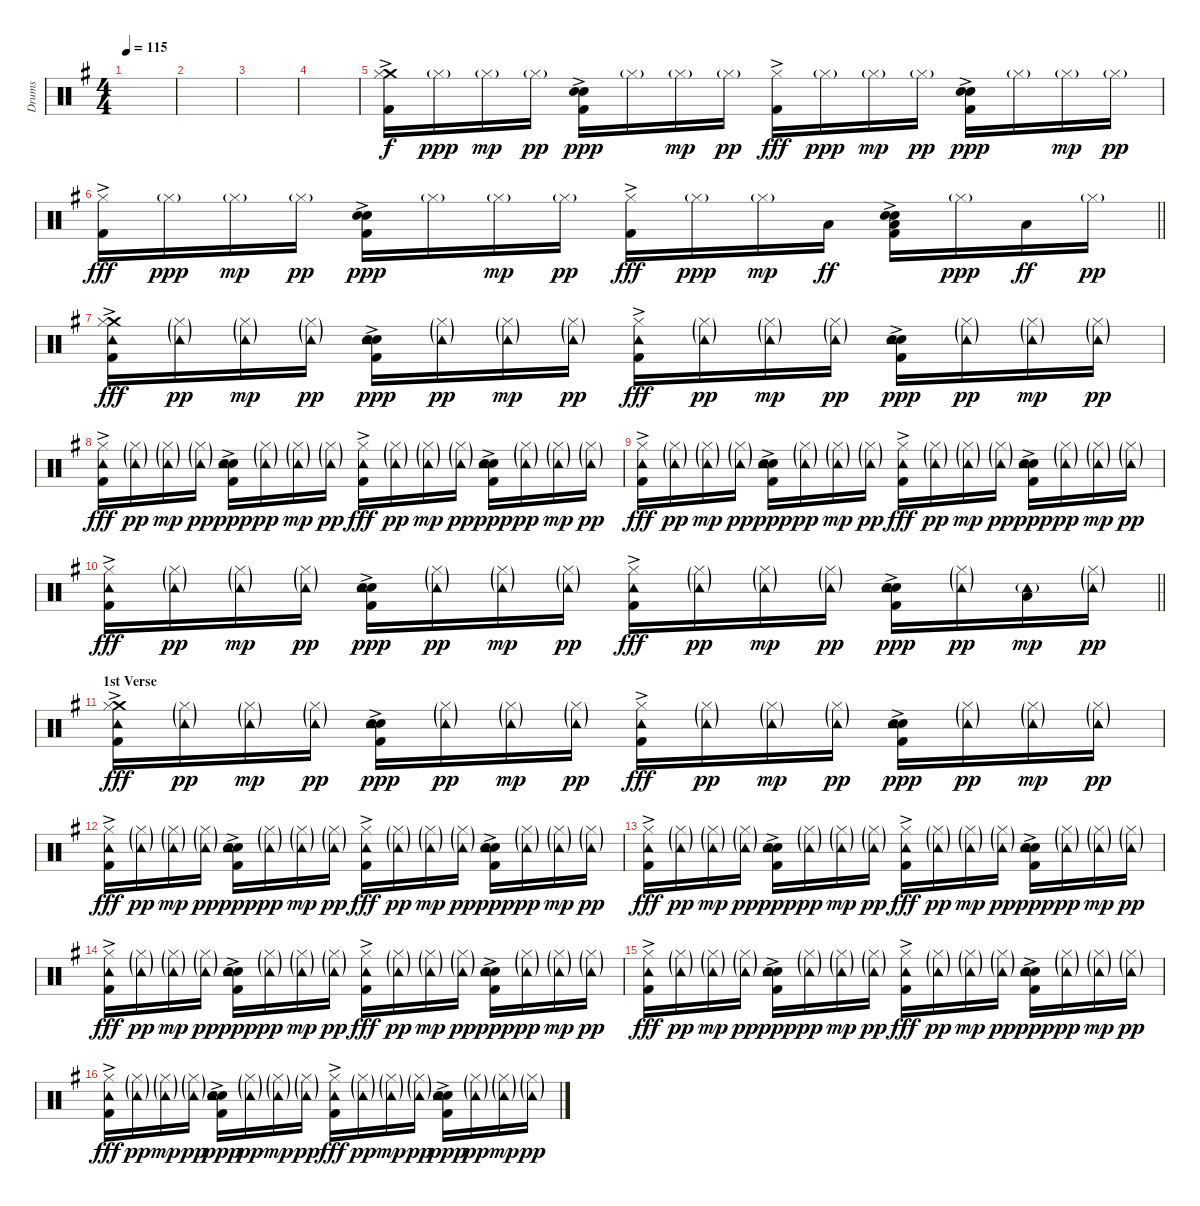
\track ("Drums" "Drums") {instrument percussion}
\staff {score}
\articulation defaults
\ts (4 4)
\tempo 115
\clef neutral
\ks g
|
|
|
|
("Kick (hit) 2"{ac} "Crash medium (hit)" "Hi-Hat (closed)").16 "Hi-Hat (closed)"{g}.16{dy ppp} "Hi-Hat (closed)"{g}.16{dy mp} "Hi-Hat (closed)"{g}.16{dy pp} ("Kick (hit) 2"{ac} "Snare (hit) 2"{ac} "Electric Snare (hit)").16{dy ppp} "Hi-Hat (closed)"{g}.16 "Hi-Hat (closed)"{g}.16{dy mp} "Hi-Hat (closed)"{g}.16{dy pp} ("Kick (hit) 2"{ac} "Hi-Hat (closed)").16{dy fff} "Hi-Hat (closed)"{g}.16{dy ppp} "Hi-Hat (closed)"{g}.16{dy mp} "Hi-Hat (closed)"{g}.16{dy pp} ("Kick (hit) 2"{ac} "Snare (hit) 2"{ac} "Electric Snare (hit)").16{dy ppp} "Hi-Hat (closed)"{g}.16 "Hi-Hat (closed)"{g}.16{dy mp} "Hi-Hat (closed)"{g}.16{dy pp} |
\barLineRight lightlight
("Kick (hit) 2"{ac} "Hi-Hat (closed)").16{dy fff} "Hi-Hat (closed)"{g}.16{dy ppp} "Hi-Hat (closed)"{g}.16{dy mp} "Hi-Hat (closed)"{g}.16{dy pp} ("Kick (hit) 2"{ac} "Snare (hit) 2"{ac} "Electric Snare (hit)").16{dy ppp} "Hi-Hat (closed)"{g}.16 "Hi-Hat (closed)"{g}.16{dy mp} "Hi-Hat (closed)"{g}.16{dy pp} ("Kick (hit) 2"{ac} "Hi-Hat (closed)").16{dy fff} "Hi-Hat (closed)"{g}.16{dy ppp} "Hi-Hat (closed)"{g}.16{dy mp} "Low Tom (hit)".16{dy ff} ("Kick (hit) 2"{ac} "Snare (hit) 2"{ac} "Electric Snare (hit)" "Low Tom (hit)").16 "Hi-Hat (closed)"{g}.16{dy ppp} "Low Floor Tom (hit)".16{dy ff} "Hi-Hat (closed)"{g}.16{dy pp} |
("Kick (hit) 2"{ac} "Crash medium (hit)" "Hi-Hat (closed)" "Tambourine (hit)").16{dy fff} ("Hi-Hat (closed)"{g} "Tambourine (hit)"{g}).16{dy pp} ("Hi-Hat (closed)"{g} "Tambourine (hit)"{g}).16{dy mp} ("Hi-Hat (closed)"{g} "Tambourine (hit)"{g}).16{dy pp} ("Kick (hit) 2"{ac} "Snare (hit) 2"{ac} "Electric Snare (hit)" "Tambourine (hit)").16{dy ppp} ("Hi-Hat (closed)"{g} "Tambourine (hit)"{g}).16{dy pp} ("Hi-Hat (closed)"{g} "Tambourine (hit)"{g}).16{dy mp} ("Hi-Hat (closed)"{g} "Tambourine (hit)"{g}).16{dy pp} ("Kick (hit) 2"{ac} "Hi-Hat (closed)" "Tambourine (hit)").16{dy fff} ("Hi-Hat (closed)"{g} "Tambourine (hit)"{g}).16{dy pp} ("Hi-Hat (closed)"{g} "Tambourine (hit)"{g}).16{dy mp} ("Hi-Hat (closed)"{g} "Tambourine (hit)"{g}).16{dy pp} ("Kick (hit) 2"{ac} "Snare (hit) 2"{ac} "Electric Snare (hit)" "Tambourine (hit)").16{dy ppp} ("Hi-Hat (closed)"{g} "Tambourine (hit)"{g}).16{dy pp} ("Hi-Hat (closed)"{g} "Tambourine (hit)"{g}).16{dy mp} ("Hi-Hat (closed)"{g} "Tambourine (hit)"{g}).16{dy pp} |
("Kick (hit) 2"{ac} "Hi-Hat (closed)" "Tambourine (hit)").16{dy fff} ("Hi-Hat (closed)"{g} "Tambourine (hit)"{g}).16{dy pp} ("Hi-Hat (closed)"{g} "Tambourine (hit)"{g}).16{dy mp} ("Hi-Hat (closed)"{g} "Tambourine (hit)"{g}).16{dy pp} ("Kick (hit) 2"{ac} "Snare (hit) 2"{ac} "Electric Snare (hit)" "Tambourine (hit)").16{dy ppp} ("Hi-Hat (closed)"{g} "Tambourine (hit)"{g}).16{dy pp} ("Hi-Hat (closed)"{g} "Tambourine (hit)"{g}).16{dy mp} ("Hi-Hat (closed)"{g} "Tambourine (hit)"{g}).16{dy pp} ("Kick (hit) 2"{ac} "Hi-Hat (closed)" "Tambourine (hit)").16{dy fff} ("Hi-Hat (closed)"{g} "Tambourine (hit)"{g}).16{dy pp} ("Hi-Hat (closed)"{g} "Tambourine (hit)"{g}).16{dy mp} ("Hi-Hat (closed)"{g} "Tambourine (hit)"{g}).16{dy pp} ("Kick (hit) 2"{ac} "Snare (hit) 2"{ac} "Electric Snare (hit)" "Tambourine (hit)").16{dy ppp} ("Hi-Hat (closed)"{g} "Tambourine (hit)"{g}).16{dy pp} ("Hi-Hat (closed)"{g} "Tambourine (hit)"{g}).16{dy mp} ("Hi-Hat (closed)"{g} "Tambourine (hit)"{g}).16{dy pp} |
("Kick (hit) 2"{ac} "Hi-Hat (closed)" "Tambourine (hit)").16{dy fff} ("Hi-Hat (closed)"{g} "Tambourine (hit)"{g}).16{dy pp} ("Hi-Hat (closed)"{g} "Tambourine (hit)"{g}).16{dy mp} ("Hi-Hat (closed)"{g} "Tambourine (hit)"{g}).16{dy pp} ("Kick (hit) 2"{ac} "Snare (hit) 2"{ac} "Electric Snare (hit)" "Tambourine (hit)").16{dy ppp} ("Hi-Hat (closed)"{g} "Tambourine (hit)"{g}).16{dy pp} ("Hi-Hat (closed)"{g} "Tambourine (hit)"{g}).16{dy mp} ("Hi-Hat (closed)"{g} "Tambourine (hit)"{g}).16{dy pp} ("Kick (hit) 2"{ac} "Hi-Hat (closed)" "Tambourine (hit)").16{dy fff} ("Hi-Hat (closed)"{g} "Tambourine (hit)"{g}).16{dy pp} ("Hi-Hat (closed)"{g} "Tambourine (hit)"{g}).16{dy mp} ("Hi-Hat (closed)"{g} "Tambourine (hit)"{g}).16{dy pp} ("Kick (hit) 2"{ac} "Snare (hit) 2"{ac} "Electric Snare (hit)" "Tambourine (hit)").16{dy ppp} ("Hi-Hat (closed)"{g} "Tambourine (hit)"{g}).16{dy pp} ("Hi-Hat (closed)"{g} "Tambourine (hit)"{g}).16{dy mp} ("Hi-Hat (closed)"{g} "Tambourine (hit)"{g}).16{dy pp} |
\barLineRight lightlight
("Kick (hit) 2"{ac} "Hi-Hat (closed)" "Tambourine (hit)").16{dy fff} ("Hi-Hat (closed)"{g} "Tambourine (hit)"{g}).16{dy pp} ("Hi-Hat (closed)"{g} "Tambourine (hit)"{g}).16{dy mp} ("Hi-Hat (closed)"{g} "Tambourine (hit)"{g}).16{dy pp} ("Kick (hit) 2"{ac} "Snare (hit) 2"{ac} "Electric Snare (hit)" "Tambourine (hit)").16{dy ppp} ("Hi-Hat (closed)"{g} "Tambourine (hit)"{g}).16{dy pp} ("Hi-Hat (closed)"{g} "Tambourine (hit)"{g}).16{dy mp} ("Hi-Hat (closed)"{g} "Tambourine (hit)"{g}).16{dy pp} ("Kick (hit) 2"{ac} "Hi-Hat (closed)" "Tambourine (hit)").16{dy fff} ("Hi-Hat (closed)"{g} "Tambourine (hit)"{g}).16{dy pp} ("Hi-Hat (closed)"{g} "Tambourine (hit)"{g}).16{dy mp} ("Hi-Hat (closed)"{g} "Tambourine (hit)"{g}).16{dy pp} ("Kick (hit) 2"{ac} "Snare (hit) 2"{ac} "Electric Snare (hit)" "Tambourine (hit)").16{dy ppp} ("Hi-Hat (closed)"{g} "Tambourine (hit)"{g}).16{dy pp} ("Low Tom (hit)" "Tambourine (hit)"{g}).16{dy mp} ("Hi-Hat (closed)"{g} "Tambourine (hit)"{g}).16{dy pp} |
\section ("" "1st Verse")
("Kick (hit) 2"{ac} "Crash medium (hit)" "Hi-Hat (closed)" "Tambourine (hit)").16{dy fff} ("Hi-Hat (closed)"{g} "Tambourine (hit)"{g}).16{dy pp} ("Hi-Hat (closed)"{g} "Tambourine (hit)"{g}).16{dy mp} ("Hi-Hat (closed)"{g} "Tambourine (hit)"{g}).16{dy pp} ("Kick (hit) 2"{ac} "Snare (hit) 2"{ac} "Electric Snare (hit)" "Tambourine (hit)").16{dy ppp} ("Hi-Hat (closed)"{g} "Tambourine (hit)"{g}).16{dy pp} ("Hi-Hat (closed)"{g} "Tambourine (hit)"{g}).16{dy mp} ("Hi-Hat (closed)"{g} "Tambourine (hit)"{g}).16{dy pp} ("Kick (hit) 2"{ac} "Hi-Hat (closed)" "Tambourine (hit)").16{dy fff} ("Hi-Hat (closed)"{g} "Tambourine (hit)"{g}).16{dy pp} ("Hi-Hat (closed)"{g} "Tambourine (hit)"{g}).16{dy mp} ("Hi-Hat (closed)"{g} "Tambourine (hit)"{g}).16{dy pp} ("Kick (hit) 2"{ac} "Snare (hit) 2"{ac} "Electric Snare (hit)" "Tambourine (hit)").16{dy ppp} ("Hi-Hat (closed)"{g} "Tambourine (hit)"{g}).16{dy pp} ("Hi-Hat (closed)"{g} "Tambourine (hit)"{g}).16{dy mp} ("Hi-Hat (closed)"{g} "Tambourine (hit)"{g}).16{dy pp} |
("Kick (hit) 2"{ac} "Hi-Hat (closed)" "Tambourine (hit)").16{dy fff} ("Hi-Hat (closed)"{g} "Tambourine (hit)"{g}).16{dy pp} ("Hi-Hat (closed)"{g} "Tambourine (hit)"{g}).16{dy mp} ("Hi-Hat (closed)"{g} "Tambourine (hit)"{g}).16{dy pp} ("Kick (hit) 2"{ac} "Snare (hit) 2"{ac} "Electric Snare (hit)" "Tambourine (hit)").16{dy ppp} ("Hi-Hat (closed)"{g} "Tambourine (hit)"{g}).16{dy pp} ("Hi-Hat (closed)"{g} "Tambourine (hit)"{g}).16{dy mp} ("Hi-Hat (closed)"{g} "Tambourine (hit)"{g}).16{dy pp} ("Kick (hit) 2"{ac} "Hi-Hat (closed)" "Tambourine (hit)").16{dy fff} ("Hi-Hat (closed)"{g} "Tambourine (hit)"{g}).16{dy pp} ("Hi-Hat (closed)"{g} "Tambourine (hit)"{g}).16{dy mp} ("Hi-Hat (closed)"{g} "Tambourine (hit)"{g}).16{dy pp} ("Kick (hit) 2"{ac} "Snare (hit) 2"{ac} "Electric Snare (hit)" "Tambourine (hit)").16{dy ppp} ("Hi-Hat (closed)"{g} "Tambourine (hit)"{g}).16{dy pp} ("Hi-Hat (closed)"{g} "Tambourine (hit)"{g}).16{dy mp} ("Hi-Hat (closed)"{g} "Tambourine (hit)"{g}).16{dy pp} |
("Kick (hit) 2"{ac} "Hi-Hat (closed)" "Tambourine (hit)").16{dy fff} ("Hi-Hat (closed)"{g} "Tambourine (hit)"{g}).16{dy pp} ("Hi-Hat (closed)"{g} "Tambourine (hit)"{g}).16{dy mp} ("Hi-Hat (closed)"{g} "Tambourine (hit)"{g}).16{dy pp} ("Kick (hit) 2"{ac} "Snare (hit) 2"{ac} "Electric Snare (hit)" "Tambourine (hit)").16{dy ppp} ("Hi-Hat (closed)"{g} "Tambourine (hit)"{g}).16{dy pp} ("Hi-Hat (closed)"{g} "Tambourine (hit)"{g}).16{dy mp} ("Hi-Hat (closed)"{g} "Tambourine (hit)"{g}).16{dy pp} ("Kick (hit) 2"{ac} "Hi-Hat (closed)" "Tambourine (hit)").16{dy fff} ("Hi-Hat (closed)"{g} "Tambourine (hit)"{g}).16{dy pp} ("Hi-Hat (closed)"{g} "Tambourine (hit)"{g}).16{dy mp} ("Hi-Hat (closed)"{g} "Tambourine (hit)"{g}).16{dy pp} ("Kick (hit) 2"{ac} "Snare (hit) 2"{ac} "Electric Snare (hit)" "Tambourine (hit)").16{dy ppp} ("Hi-Hat (closed)"{g} "Tambourine (hit)"{g}).16{dy pp} ("Hi-Hat (closed)"{g} "Tambourine (hit)"{g}).16{dy mp} ("Hi-Hat (closed)"{g} "Tambourine (hit)"{g}).16{dy pp} |
("Kick (hit) 2"{ac} "Hi-Hat (closed)" "Tambourine (hit)").16{dy fff} ("Hi-Hat (closed)"{g} "Tambourine (hit)"{g}).16{dy pp} ("Hi-Hat (closed)"{g} "Tambourine (hit)"{g}).16{dy mp} ("Hi-Hat (closed)"{g} "Tambourine (hit)"{g}).16{dy pp} ("Kick (hit) 2"{ac} "Snare (hit) 2"{ac} "Electric Snare (hit)" "Tambourine (hit)").16{dy ppp} ("Hi-Hat (closed)"{g} "Tambourine (hit)"{g}).16{dy pp} ("Hi-Hat (closed)"{g} "Tambourine (hit)"{g}).16{dy mp} ("Hi-Hat (closed)"{g} "Tambourine (hit)"{g}).16{dy pp} ("Kick (hit) 2"{ac} "Hi-Hat (closed)" "Tambourine (hit)").16{dy fff} ("Hi-Hat (closed)"{g} "Tambourine (hit)"{g}).16{dy pp} ("Hi-Hat (closed)"{g} "Tambourine (hit)"{g}).16{dy mp} ("Hi-Hat (closed)"{g} "Tambourine (hit)"{g}).16{dy pp} ("Kick (hit) 2"{ac} "Snare (hit) 2"{ac} "Electric Snare (hit)" "Tambourine (hit)").16{dy ppp} ("Hi-Hat (closed)"{g} "Tambourine (hit)"{g}).16{dy pp} ("Hi-Hat (closed)"{g} "Tambourine (hit)"{g}).16{dy mp} ("Hi-Hat (closed)"{g} "Tambourine (hit)"{g}).16{dy pp} |
("Kick (hit) 2"{ac} "Hi-Hat (closed)" "Tambourine (hit)").16{dy fff} ("Hi-Hat (closed)"{g} "Tambourine (hit)"{g}).16{dy pp} ("Hi-Hat (closed)"{g} "Tambourine (hit)"{g}).16{dy mp} ("Hi-Hat (closed)"{g} "Tambourine (hit)"{g}).16{dy pp} ("Kick (hit) 2"{ac} "Snare (hit) 2"{ac} "Electric Snare (hit)" "Tambourine (hit)").16{dy ppp} ("Hi-Hat (closed)"{g} "Tambourine (hit)"{g}).16{dy pp} ("Hi-Hat (closed)"{g} "Tambourine (hit)"{g}).16{dy mp} ("Hi-Hat (closed)"{g} "Tambourine (hit)"{g}).16{dy pp} ("Kick (hit) 2"{ac} "Hi-Hat (closed)" "Tambourine (hit)").16{dy fff} ("Hi-Hat (closed)"{g} "Tambourine (hit)"{g}).16{dy pp} ("Hi-Hat (closed)"{g} "Tambourine (hit)"{g}).16{dy mp} ("Hi-Hat (closed)"{g} "Tambourine (hit)"{g}).16{dy pp} ("Kick (hit) 2"{ac} "Snare (hit) 2"{ac} "Electric Snare (hit)" "Tambourine (hit)").16{dy ppp} ("Hi-Hat (closed)"{g} "Tambourine (hit)"{g}).16{dy pp} ("Hi-Hat (closed)"{g} "Tambourine (hit)"{g}).16{dy mp} ("Hi-Hat (closed)"{g} "Tambourine (hit)"{g}).16{dy pp} |
("Kick (hit) 2"{ac} "Hi-Hat (closed)" "Tambourine (hit)").16{dy fff} ("Hi-Hat (closed)"{g} "Tambourine (hit)"{g}).16{dy pp} ("Hi-Hat (closed)"{g} "Tambourine (hit)"{g}).16{dy mp} ("Hi-Hat (closed)"{g} "Tambourine (hit)"{g}).16{dy pp} ("Kick (hit) 2"{ac} "Snare (hit) 2"{ac} "Electric Snare (hit)" "Tambourine (hit)").16{dy ppp} ("Hi-Hat (closed)"{g} "Tambourine (hit)"{g}).16{dy pp} ("Hi-Hat (closed)"{g} "Tambourine (hit)"{g}).16{dy mp} ("Hi-Hat (closed)"{g} "Tambourine (hit)"{g}).16{dy pp} ("Kick (hit) 2"{ac} "Hi-Hat (closed)" "Tambourine (hit)").16{dy fff} ("Hi-Hat (closed)"{g} "Tambourine (hit)"{g}).16{dy pp} ("Hi-Hat (closed)"{g} "Tambourine (hit)"{g}).16{dy mp} ("Hi-Hat (closed)"{g} "Tambourine (hit)"{g}).16{dy pp} ("Kick (hit) 2"{ac} "Snare (hit) 2"{ac} "Electric Snare (hit)" "Tambourine (hit)").16{dy ppp} ("Hi-Hat (closed)"{g} "Tambourine (hit)"{g}).16{dy pp} ("Hi-Hat (closed)"{g} "Tambourine (hit)"{g}).16{dy mp} ("Hi-Hat (closed)"{g} "Tambourine (hit)"{g}).16{dy pp}
